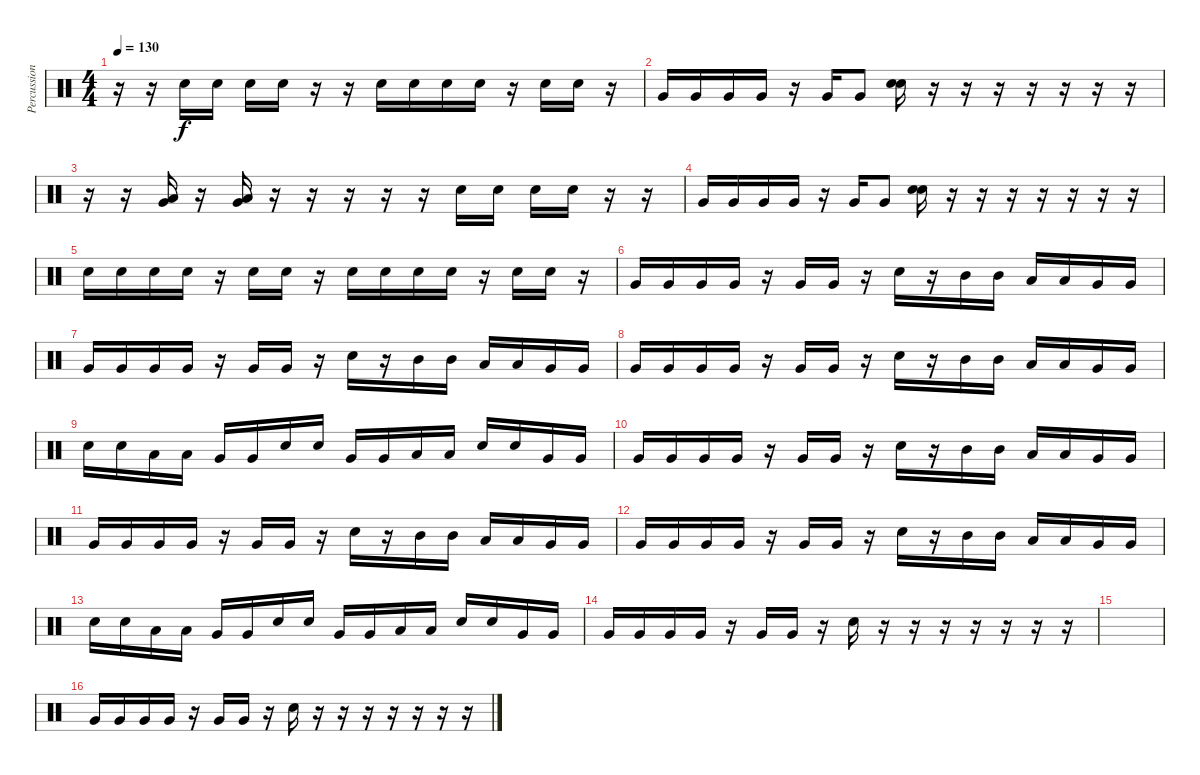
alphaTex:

\track ("Percussion" "Percussion") {instrument percussion}
\staff {score}
\articulation defaults
\ts (4 4)
\tempo 130
\clef neutral
\ks c
r.16{dy f} r.16 "Electric Snare (hit)".16 "Electric Snare (hit)".16 "Electric Snare (hit)".16 "Electric Snare (hit)".16 r.16 r.16 "Electric Snare (hit)".16 "Electric Snare (hit)".16 "Electric Snare (hit)".16 "Electric Snare (hit)".16 r.16 "Electric Snare (hit)".16 "Electric Snare (hit)".16 r.16 |
"Very Low Tom (hit)".16 "Very Low Tom (hit)".16 "Very Low Tom (hit)".16 "Very Low Tom (hit)".16 r.16 "Very Low Tom (hit)".16 "Very Low Tom (hit)".8 ("Snare (hit) 2" "Electric Snare (hit)").16 r.16 r.16 r.16 r.16 r.16 r.16 r.16 |
r.16 r.16 ("Low Tom (hit)" "Very Low Tom (hit)").16 r.16 ("Low Tom (hit)" "Very Low Tom (hit)").16 r.16 r.16 r.16 r.16 r.16 "Electric Snare (hit)".16 "Electric Snare (hit)".16 "Electric Snare (hit)".16 "Electric Snare (hit)".16 r.16 r.16 |
"Very Low Tom (hit)".16 "Very Low Tom (hit)".16 "Very Low Tom (hit)".16 "Very Low Tom (hit)".16 r.16 "Very Low Tom (hit)".16 "Very Low Tom (hit)".8 ("Snare (hit) 2" "Electric Snare (hit)").16 r.16 r.16 r.16 r.16 r.16 r.16 r.16 |
"Electric Snare (hit)".16 "Electric Snare (hit)".16 "Electric Snare (hit)".16 "Electric Snare (hit)".16 r.16 "Electric Snare (hit)".16 "Electric Snare (hit)".16 r.16 "Electric Snare (hit)".16 "Electric Snare (hit)".16 "Electric Snare (hit)".16 "Electric Snare (hit)".16 r.16 "Electric Snare (hit)".16 "Electric Snare (hit)".16 r.16 |
"Very Low Tom (hit)".16 "Very Low Tom (hit)".16 "Very Low Tom (hit)".16 "Very Low Tom (hit)".16 r.16 "Very Low Tom (hit)".16 "Very Low Tom (hit)".16 r.16 "Electric Snare (hit)".16 r.16 "Mid Tom (hit)".16 "Mid Tom (hit)".16 "Low Tom (hit)".16 "Low Tom (hit)".16 "Very Low Tom (hit)".16 "Very Low Tom (hit)".16 |
"Very Low Tom (hit)".16 "Very Low Tom (hit)".16 "Very Low Tom (hit)".16 "Very Low Tom (hit)".16 r.16 "Very Low Tom (hit)".16 "Very Low Tom (hit)".16 r.16 "Electric Snare (hit)".16 r.16 "Mid Tom (hit)".16 "Mid Tom (hit)".16 "Low Tom (hit)".16 "Low Tom (hit)".16 "Very Low Tom (hit)".16 "Very Low Tom (hit)".16 |
"Very Low Tom (hit)".16 "Very Low Tom (hit)".16 "Very Low Tom (hit)".16 "Very Low Tom (hit)".16 r.16 "Very Low Tom (hit)".16 "Very Low Tom (hit)".16 r.16 "Electric Snare (hit)".16 r.16 "Mid Tom (hit)".16 "Mid Tom (hit)".16 "Low Tom (hit)".16 "Low Tom (hit)".16 "Very Low Tom (hit)".16 "Very Low Tom (hit)".16 |
"Electric Snare (hit)".16 "Electric Snare (hit)".16 "Low Tom (hit)".16 "Low Tom (hit)".16 "Very Low Tom (hit)".16 "Very Low Tom (hit)".16 "Electric Snare (hit)".16 "Electric Snare (hit)".16 "Very Low Tom (hit)".16 "Very Low Tom (hit)".16 "Low Floor Tom (hit)".16 "Low Floor Tom (hit)".16 "Electric Snare (hit)".16 "Electric Snare (hit)".16 "Very Low Tom (hit)".16 "Very Low Tom (hit)".16 |
"Very Low Tom (hit)".16 "Very Low Tom (hit)".16 "Very Low Tom (hit)".16 "Very Low Tom (hit)".16 r.16 "Very Low Tom (hit)".16 "Very Low Tom (hit)".16 r.16 "Electric Snare (hit)".16 r.16 "Mid Tom (hit)".16 "Mid Tom (hit)".16 "Low Tom (hit)".16 "Low Tom (hit)".16 "Very Low Tom (hit)".16 "Very Low Tom (hit)".16 |
"Very Low Tom (hit)".16 "Very Low Tom (hit)".16 "Very Low Tom (hit)".16 "Very Low Tom (hit)".16 r.16 "Very Low Tom (hit)".16 "Very Low Tom (hit)".16 r.16 "Electric Snare (hit)".16 r.16 "Mid Tom (hit)".16 "Mid Tom (hit)".16 "Low Tom (hit)".16 "Low Tom (hit)".16 "Very Low Tom (hit)".16 "Very Low Tom (hit)".16 |
"Very Low Tom (hit)".16 "Very Low Tom (hit)".16 "Very Low Tom (hit)".16 "Very Low Tom (hit)".16 r.16 "Very Low Tom (hit)".16 "Very Low Tom (hit)".16 r.16 "Electric Snare (hit)".16 r.16 "Mid Tom (hit)".16 "Mid Tom (hit)".16 "Low Tom (hit)".16 "Low Tom (hit)".16 "Very Low Tom (hit)".16 "Very Low Tom (hit)".16 |
"Electric Snare (hit)".16 "Electric Snare (hit)".16 "Low Tom (hit)".16 "Low Tom (hit)".16 "Very Low Tom (hit)".16 "Very Low Tom (hit)".16 "Electric Snare (hit)".16 "Electric Snare (hit)".16 "Very Low Tom (hit)".16 "Very Low Tom (hit)".16 "Low Floor Tom (hit)".16 "Low Floor Tom (hit)".16 "Electric Snare (hit)".16 "Electric Snare (hit)".16 "Very Low Tom (hit)".16 "Very Low Tom (hit)".16 |
"Very Low Tom (hit)".16 "Very Low Tom (hit)".16 "Very Low Tom (hit)".16 "Very Low Tom (hit)".16 r.16 "Very Low Tom (hit)".16 "Very Low Tom (hit)".16 r.16 "Electric Snare (hit)".16 r.16 r.16 r.16 r.16 r.16 r.16 r.16 |
|
"Very Low Tom (hit)".16 "Very Low Tom (hit)".16 "Very Low Tom (hit)".16 "Very Low Tom (hit)".16 r.16 "Very Low Tom (hit)".16 "Very Low Tom (hit)".16 r.16 "Electric Snare (hit)".16 r.16 r.16 r.16 r.16 r.16 r.16 r.16
